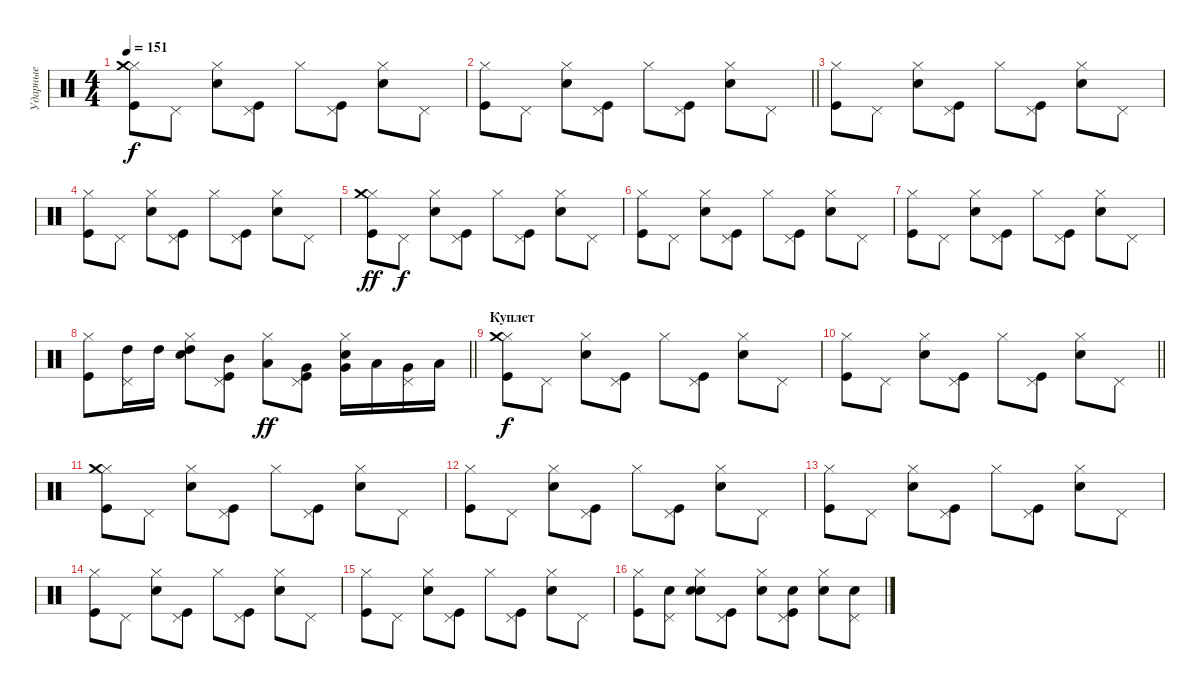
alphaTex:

\track ("Ударные" "Ударные") {instrument percussion}
\staff {score}
\articulation defaults
\ts (4 4)
\tempo 151
\clef neutral
\ks c
("Hi-Hat (closed)" "Kick (hit)" "Crash medium (hit)").8{dy f} "Pedal Hi-Hat (hit)".8 ("Hi-Hat (closed)" "Snare (hit) 2").8 ("Pedal Hi-Hat (hit)" "Kick (hit)").8 "Hi-Hat (closed)".8 ("Pedal Hi-Hat (hit)" "Kick (hit)").8 ("Hi-Hat (closed)" "Snare (hit) 2").8 "Pedal Hi-Hat (hit)".8 |
\barLineRight lightlight
("Hi-Hat (closed)" "Kick (hit)").8 "Pedal Hi-Hat (hit)".8 ("Hi-Hat (closed)" "Snare (hit) 2").8 ("Pedal Hi-Hat (hit)" "Kick (hit)").8 "Hi-Hat (closed)".8 ("Pedal Hi-Hat (hit)" "Kick (hit)").8 ("Hi-Hat (closed)" "Snare (hit) 2").8 "Pedal Hi-Hat (hit)".8 |
("Hi-Hat (closed)" "Kick (hit)").8 "Pedal Hi-Hat (hit)".8 ("Hi-Hat (closed)" "Snare (hit) 2").8 ("Pedal Hi-Hat (hit)" "Kick (hit)").8 "Hi-Hat (closed)".8 ("Pedal Hi-Hat (hit)" "Kick (hit)").8 ("Hi-Hat (closed)" "Snare (hit) 2").8 "Pedal Hi-Hat (hit)".8 |
("Hi-Hat (closed)" "Kick (hit)").8 "Pedal Hi-Hat (hit)".8 ("Hi-Hat (closed)" "Snare (hit) 2").8 ("Pedal Hi-Hat (hit)" "Kick (hit)").8 "Hi-Hat (closed)".8 ("Pedal Hi-Hat (hit)" "Kick (hit)").8 ("Hi-Hat (closed)" "Snare (hit) 2").8 "Pedal Hi-Hat (hit)".8 |
("Hi-Hat (closed)" "Kick (hit)" "Crash medium (hit)").8{dy ff} "Pedal Hi-Hat (hit)".8{dy f} ("Hi-Hat (closed)" "Snare (hit) 2").8 ("Pedal Hi-Hat (hit)" "Kick (hit)").8 "Hi-Hat (closed)".8 ("Pedal Hi-Hat (hit)" "Kick (hit)").8 ("Hi-Hat (closed)" "Snare (hit) 2").8 "Pedal Hi-Hat (hit)".8 |
("Hi-Hat (closed)" "Kick (hit)").8 "Pedal Hi-Hat (hit)".8 ("Hi-Hat (closed)" "Snare (hit) 2").8 ("Pedal Hi-Hat (hit)" "Kick (hit)").8 "Hi-Hat (closed)".8 ("Pedal Hi-Hat (hit)" "Kick (hit)").8 ("Hi-Hat (closed)" "Snare (hit) 2").8 "Pedal Hi-Hat (hit)".8 |
("Hi-Hat (closed)" "Kick (hit)").8 "Pedal Hi-Hat (hit)".8 ("Hi-Hat (closed)" "Snare (hit) 2").8 ("Pedal Hi-Hat (hit)" "Kick (hit)").8 "Hi-Hat (closed)".8 ("Pedal Hi-Hat (hit)" "Kick (hit)").8 ("Hi-Hat (closed)" "Snare (hit) 2").8 "Pedal Hi-Hat (hit)".8 |
\barLineRight lightlight
("Hi-Hat (closed)" "Kick (hit)").8 ("Pedal Hi-Hat (hit)" "High Tom (hit)").16 "High Tom (hit)".16 ("Hi-Hat (closed)" "Snare (hit) 2" "High Tom (hit)").8 ("Pedal Hi-Hat (hit)" "Kick (hit)" "Mid Tom (hit)").8 ("Hi-Hat (closed)" "Low Tom (hit)").8{dy ff} ("Pedal Hi-Hat (hit)" "Kick (hit)" "Very Low Tom (hit)").8 ("Hi-Hat (closed)" "Snare (hit) 2" "Very Low Tom (hit)").16 "Low Tom (hit)".16 ("Pedal Hi-Hat (hit)" "Very Low Tom (hit)").16 "Low Tom (hit)".16 |
\section ("" "Куплет")
("Hi-Hat (closed)" "Kick (hit)" "Crash medium (hit)").8{dy f} "Pedal Hi-Hat (hit)".8 ("Hi-Hat (closed)" "Snare (hit) 2").8 ("Pedal Hi-Hat (hit)" "Kick (hit)").8 "Hi-Hat (closed)".8 ("Pedal Hi-Hat (hit)" "Kick (hit)").8 ("Hi-Hat (closed)" "Snare (hit) 2").8 "Pedal Hi-Hat (hit)".8 |
\barLineRight lightlight
("Hi-Hat (closed)" "Kick (hit)").8 "Pedal Hi-Hat (hit)".8 ("Hi-Hat (closed)" "Snare (hit) 2").8 ("Pedal Hi-Hat (hit)" "Kick (hit)").8 "Hi-Hat (closed)".8 ("Pedal Hi-Hat (hit)" "Kick (hit)").8 ("Hi-Hat (closed)" "Snare (hit) 2").8 "Pedal Hi-Hat (hit)".8 |
("Hi-Hat (closed)" "Kick (hit)" "Crash medium (hit)").8 "Pedal Hi-Hat (hit)".8 ("Hi-Hat (closed)" "Snare (hit) 2").8 ("Pedal Hi-Hat (hit)" "Kick (hit)").8 "Hi-Hat (closed)".8 ("Pedal Hi-Hat (hit)" "Kick (hit)").8 ("Hi-Hat (closed)" "Snare (hit) 2").8 "Pedal Hi-Hat (hit)".8 |
("Hi-Hat (closed)" "Kick (hit)").8 "Pedal Hi-Hat (hit)".8 ("Hi-Hat (closed)" "Snare (hit) 2").8 ("Pedal Hi-Hat (hit)" "Kick (hit)").8 "Hi-Hat (closed)".8 ("Pedal Hi-Hat (hit)" "Kick (hit)").8 ("Hi-Hat (closed)" "Snare (hit) 2").8 "Pedal Hi-Hat (hit)".8 |
("Hi-Hat (closed)" "Kick (hit)").8 "Pedal Hi-Hat (hit)".8 ("Hi-Hat (closed)" "Snare (hit) 2").8 ("Pedal Hi-Hat (hit)" "Kick (hit)").8 "Hi-Hat (closed)".8 ("Pedal Hi-Hat (hit)" "Kick (hit)").8 ("Hi-Hat (closed)" "Snare (hit) 2").8 "Pedal Hi-Hat (hit)".8 |
("Hi-Hat (closed)" "Kick (hit)").8 "Pedal Hi-Hat (hit)".8 ("Hi-Hat (closed)" "Snare (hit) 2").8 ("Pedal Hi-Hat (hit)" "Kick (hit)").8 "Hi-Hat (closed)".8 ("Pedal Hi-Hat (hit)" "Kick (hit)").8 ("Hi-Hat (closed)" "Snare (hit) 2").8 "Pedal Hi-Hat (hit)".8 |
("Hi-Hat (closed)" "Kick (hit)").8 "Pedal Hi-Hat (hit)".8 ("Hi-Hat (closed)" "Snare (hit) 2").8 ("Pedal Hi-Hat (hit)" "Kick (hit)").8 "Hi-Hat (closed)".8 ("Pedal Hi-Hat (hit)" "Kick (hit)").8 ("Hi-Hat (closed)" "Snare (hit) 2").8 "Pedal Hi-Hat (hit)".8 |
("Hi-Hat (closed)" "Kick (hit)").8 ("Pedal Hi-Hat (hit)" "Hand Clap (hit)").8 ("Hi-Hat (closed)" "Snare (hit) 2" "Hand Clap (hit)").8 ("Pedal Hi-Hat (hit)" "Kick (hit)").8 ("Hi-Hat (closed)" "Hand Clap (hit)").8 ("Pedal Hi-Hat (hit)" "Kick (hit)" "Hand Clap (hit)").8 ("Hi-Hat (closed)" "Snare (hit) 2").8 ("Pedal Hi-Hat (hit)" "Hand Clap (hit)").8
